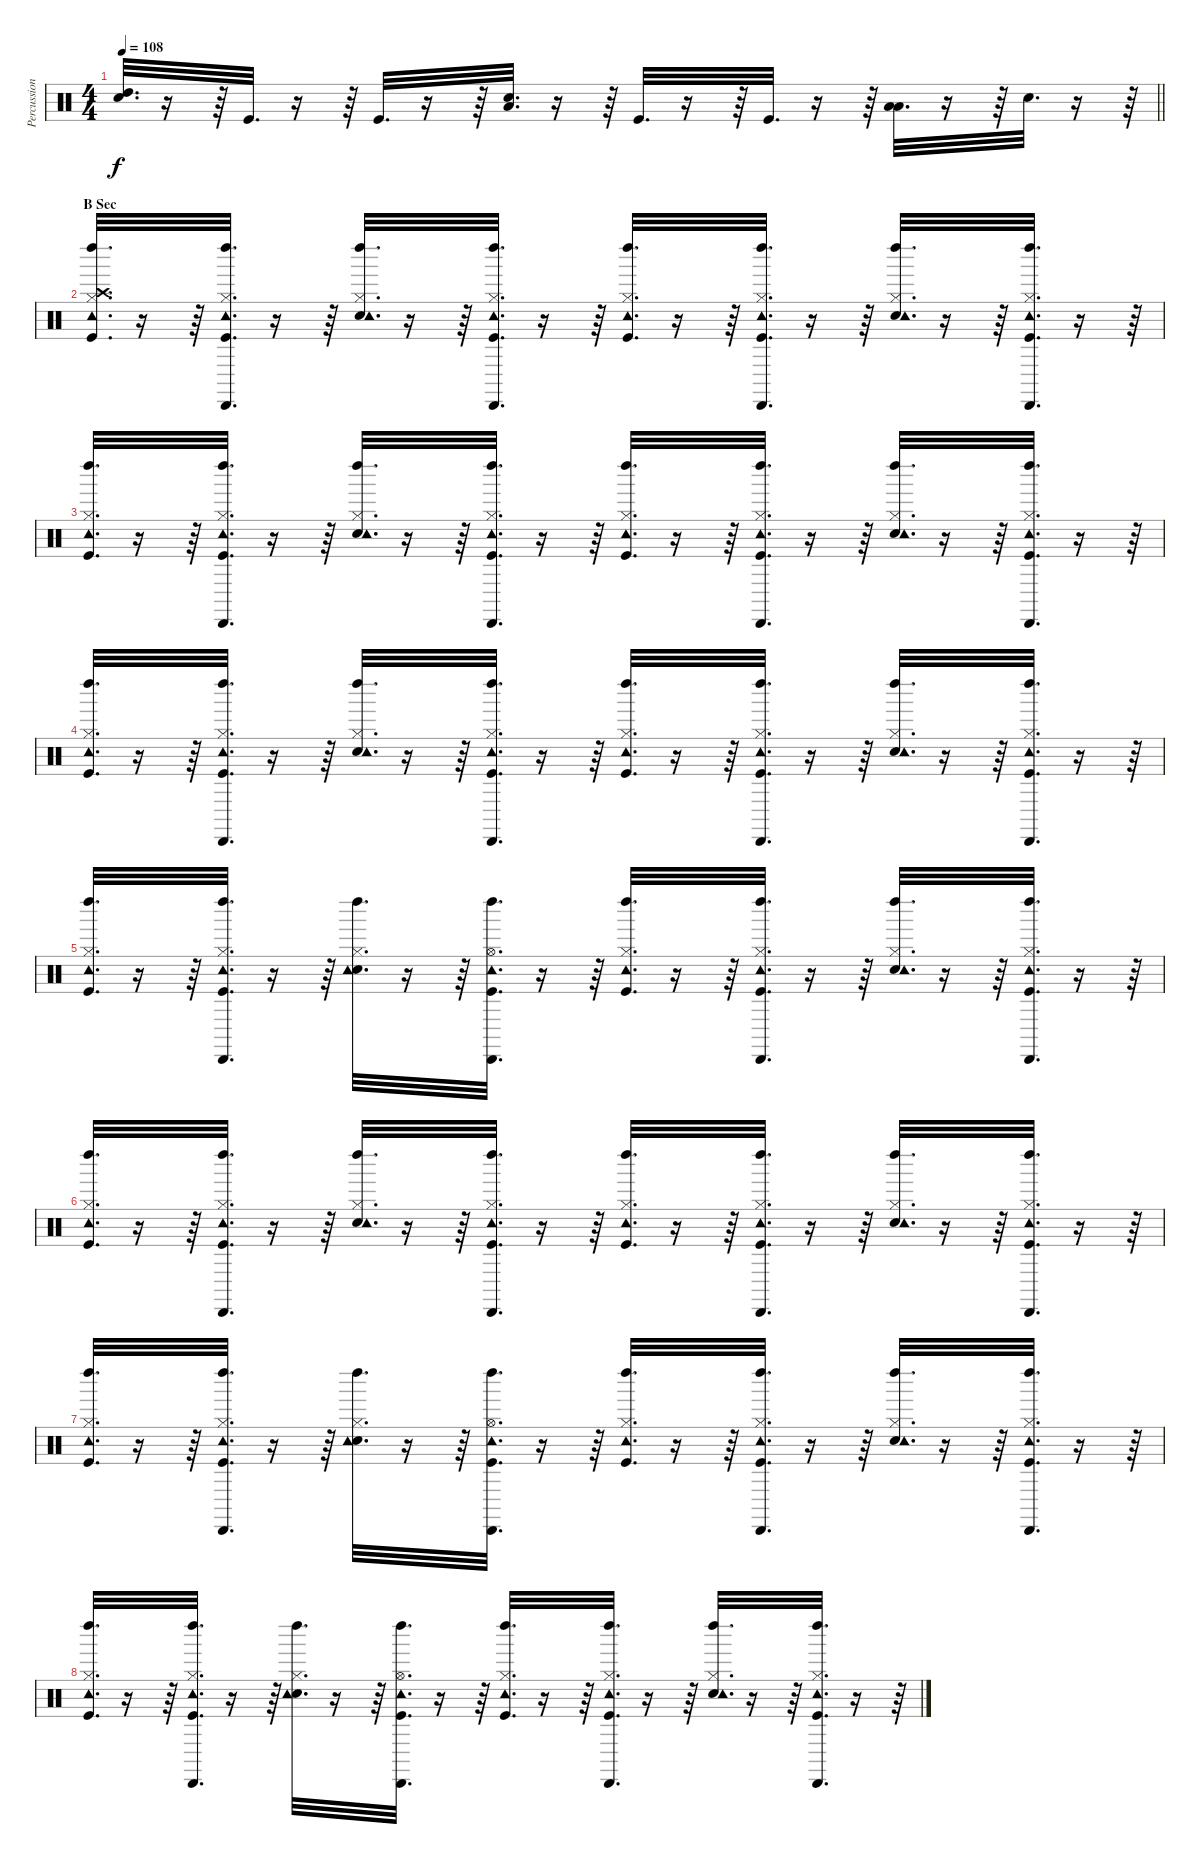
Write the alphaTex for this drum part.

\track ("Percussions" "Percussion") {instrument percussion}
\staff {score}
\articulation defaults
\ts (4 4)
\tempo 108
\clef neutral
\barLineRight lightlight
\ks c
("High Tom (hit)" "Snare (hit) 2").32{d dy f} r.16 r.64 "Kick (hit)".32{d} r.16 r.64 "Kick (hit)".32{d} r.16 r.64 ("Low Tom (hit)" "Snare (hit) 2").32{d} r.16 r.64 "Kick (hit)".32{d} r.16 r.64 "Kick (hit)".32{d} r.16 r.64 ("Low Tom (hit)" "Low Floor Tom (hit)").32{d} r.16 r.64 "Snare (hit) 2".32{d} r.16 r.64 |
\section ("" "B Sec")
("Left Maraca (hit)" "Crash high (hit)" "Kick (hit)" "Hi-Hat (closed)" "Tambourine (hit)").32{d} r.16 r.64 ("Cabasa (hit)" "Tambourine (hit)" "Kick (hit)" "Hi-Hat (closed)" "Left Maraca (hit)").32{d} r.16 r.64 ("Left Maraca (hit)" "Snare (hit) 2" "Hi-Hat (closed)" "Tambourine (hit)").32{d} r.16 r.64 ("Cabasa (hit)" "Tambourine (hit)" "Kick (hit)" "Hi-Hat (closed)" "Left Maraca (hit)").32{d} r.16 r.64 ("Left Maraca (hit)" "Kick (hit)" "Hi-Hat (closed)" "Tambourine (hit)").32{d} r.16 r.64 ("Cabasa (hit)" "Tambourine (hit)" "Kick (hit)" "Hi-Hat (closed)" "Left Maraca (hit)").32{d} r.16 r.64 ("Left Maraca (hit)" "Snare (hit) 2" "Hi-Hat (closed)" "Tambourine (hit)").32{d} r.16 r.64 ("Cabasa (hit)" "Tambourine (hit)" "Kick (hit)" "Hi-Hat (closed)" "Left Maraca (hit)").32{d} r.16 r.64 |
("Left Maraca (hit)" "Kick (hit)" "Hi-Hat (closed)" "Tambourine (hit)").32{d} r.16 r.64 ("Cabasa (hit)" "Tambourine (hit)" "Kick (hit)" "Hi-Hat (closed)" "Left Maraca (hit)").32{d} r.16 r.64 ("Left Maraca (hit)" "Snare (hit) 2" "Hi-Hat (closed)" "Tambourine (hit)").32{d} r.16 r.64 ("Cabasa (hit)" "Tambourine (hit)" "Kick (hit)" "Hi-Hat (closed)" "Left Maraca (hit)").32{d} r.16 r.64 ("Left Maraca (hit)" "Kick (hit)" "Hi-Hat (closed)" "Tambourine (hit)").32{d} r.16 r.64 ("Cabasa (hit)" "Tambourine (hit)" "Kick (hit)" "Hi-Hat (closed)" "Left Maraca (hit)").32{d} r.16 r.64 ("Left Maraca (hit)" "Snare (hit) 2" "Hi-Hat (closed)" "Tambourine (hit)").32{d} r.16 r.64 ("Cabasa (hit)" "Tambourine (hit)" "Kick (hit)" "Hi-Hat (closed)" "Left Maraca (hit)").32{d} r.16 r.64 |
("Left Maraca (hit)" "Kick (hit)" "Hi-Hat (closed)" "Tambourine (hit)").32{d} r.16 r.64 ("Cabasa (hit)" "Tambourine (hit)" "Kick (hit)" "Hi-Hat (closed)" "Left Maraca (hit)").32{d} r.16 r.64 ("Left Maraca (hit)" "Snare (hit) 2" "Hi-Hat (closed)" "Tambourine (hit)").32{d} r.16 r.64 ("Cabasa (hit)" "Tambourine (hit)" "Kick (hit)" "Hi-Hat (closed)" "Left Maraca (hit)").32{d} r.16 r.64 ("Left Maraca (hit)" "Kick (hit)" "Hi-Hat (closed)" "Tambourine (hit)").32{d} r.16 r.64 ("Cabasa (hit)" "Tambourine (hit)" "Kick (hit)" "Hi-Hat (closed)" "Left Maraca (hit)").32{d} r.16 r.64 ("Left Maraca (hit)" "Snare (hit) 2" "Hi-Hat (closed)" "Tambourine (hit)").32{d} r.16 r.64 ("Cabasa (hit)" "Tambourine (hit)" "Kick (hit)" "Hi-Hat (closed)" "Left Maraca (hit)").32{d} r.16 r.64 |
("Left Maraca (hit)" "Kick (hit)" "Hi-Hat (closed)" "Tambourine (hit)").32{d} r.16 r.64 ("Cabasa (hit)" "Tambourine (hit)" "Kick (hit)" "Hi-Hat (closed)" "Left Maraca (hit)").32{d} r.16 r.64 ("Left Maraca (hit)" "Snare (hit) 2" "Hi-Hat (closed)" "Tambourine (hit)").32{d} r.16 r.64 ("Cabasa (hit)" "Tambourine (hit)" "Kick (hit)" "Hi-Hat (open)" "Left Maraca (hit)").32{d} r.16 r.64 ("Left Maraca (hit)" "Kick (hit)" "Hi-Hat (closed)" "Tambourine (hit)").32{d} r.16 r.64 ("Cabasa (hit)" "Tambourine (hit)" "Kick (hit)" "Hi-Hat (closed)" "Left Maraca (hit)").32{d} r.16 r.64 ("Left Maraca (hit)" "Snare (hit) 2" "Hi-Hat (closed)" "Tambourine (hit)").32{d} r.16 r.64 ("Cabasa (hit)" "Tambourine (hit)" "Kick (hit)" "Hi-Hat (closed)" "Left Maraca (hit)").32{d} r.16 r.64 |
("Left Maraca (hit)" "Kick (hit)" "Hi-Hat (closed)" "Tambourine (hit)").32{d} r.16 r.64 ("Cabasa (hit)" "Tambourine (hit)" "Kick (hit)" "Hi-Hat (closed)" "Left Maraca (hit)").32{d} r.16 r.64 ("Left Maraca (hit)" "Snare (hit) 2" "Hi-Hat (closed)" "Tambourine (hit)").32{d} r.16 r.64 ("Cabasa (hit)" "Tambourine (hit)" "Kick (hit)" "Hi-Hat (closed)" "Left Maraca (hit)").32{d} r.16 r.64 ("Left Maraca (hit)" "Kick (hit)" "Hi-Hat (closed)" "Tambourine (hit)").32{d} r.16 r.64 ("Cabasa (hit)" "Tambourine (hit)" "Kick (hit)" "Hi-Hat (closed)" "Left Maraca (hit)").32{d} r.16 r.64 ("Left Maraca (hit)" "Snare (hit) 2" "Hi-Hat (closed)" "Tambourine (hit)").32{d} r.16 r.64 ("Cabasa (hit)" "Tambourine (hit)" "Kick (hit)" "Hi-Hat (closed)" "Left Maraca (hit)").32{d} r.16 r.64 |
("Left Maraca (hit)" "Kick (hit)" "Hi-Hat (closed)" "Tambourine (hit)").32{d} r.16 r.64 ("Cabasa (hit)" "Tambourine (hit)" "Kick (hit)" "Hi-Hat (closed)" "Left Maraca (hit)").32{d} r.16 r.64 ("Left Maraca (hit)" "Snare (hit) 2" "Hi-Hat (closed)" "Tambourine (hit)").32{d} r.16 r.64 ("Cabasa (hit)" "Tambourine (hit)" "Kick (hit)" "Hi-Hat (open)" "Left Maraca (hit)").32{d} r.16 r.64 ("Left Maraca (hit)" "Kick (hit)" "Hi-Hat (closed)" "Tambourine (hit)").32{d} r.16 r.64 ("Cabasa (hit)" "Tambourine (hit)" "Kick (hit)" "Hi-Hat (closed)" "Left Maraca (hit)").32{d} r.16 r.64 ("Left Maraca (hit)" "Snare (hit) 2" "Hi-Hat (closed)" "Tambourine (hit)").32{d} r.16 r.64 ("Cabasa (hit)" "Tambourine (hit)" "Kick (hit)" "Hi-Hat (closed)" "Left Maraca (hit)").32{d} r.16 r.64 |
("Left Maraca (hit)" "Kick (hit)" "Hi-Hat (closed)" "Tambourine (hit)").32{d} r.16 r.64 ("Cabasa (hit)" "Tambourine (hit)" "Kick (hit)" "Hi-Hat (closed)" "Left Maraca (hit)").32{d} r.16 r.64 ("Left Maraca (hit)" "Snare (hit) 2" "Hi-Hat (closed)" "Tambourine (hit)").32{d} r.16 r.64 ("Cabasa (hit)" "Tambourine (hit)" "Kick (hit)" "Hi-Hat (open)" "Left Maraca (hit)").32{d} r.16 r.64 ("Left Maraca (hit)" "Kick (hit)" "Hi-Hat (closed)" "Tambourine (hit)").32{d} r.16 r.64 ("Cabasa (hit)" "Tambourine (hit)" "Kick (hit)" "Hi-Hat (closed)" "Left Maraca (hit)").32{d} r.16 r.64 ("Left Maraca (hit)" "Snare (hit) 2" "Hi-Hat (closed)" "Tambourine (hit)").32{d} r.16 r.64 ("Cabasa (hit)" "Tambourine (hit)" "Kick (hit)" "Hi-Hat (closed)" "Left Maraca (hit)").32{d} r.16{txt ""} r.64
